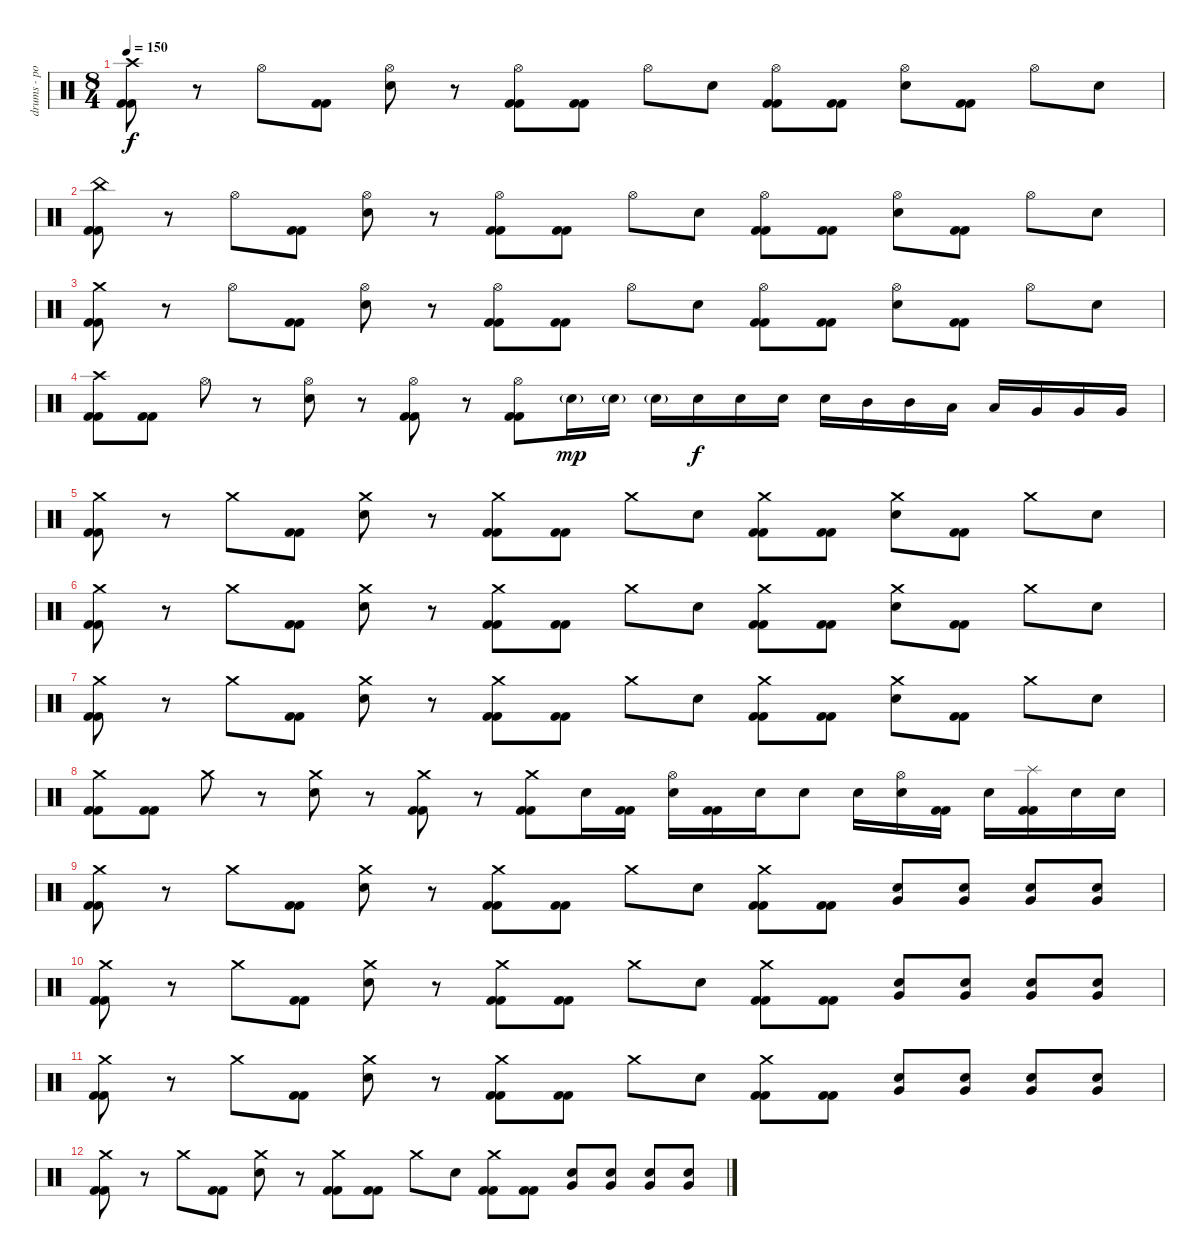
\track ("drums - portnoy" "drums - po") {instrument percussion}
\staff {score}
\articulation defaults
\ts (8 4)
\tempo 150
\clef neutral
\ks c
("Crash high (hit)" "Kick (hit) 2" "Kick (hit) 2").8{dy f} r.8 "Hi-Hat (open)".8 ("Kick (hit) 2" "Kick (hit) 2").8 ("Hi-Hat (open)" "Electric Snare (hit)").8 r.8 ("Hi-Hat (open)" "Kick (hit) 2" "Kick (hit) 2").8 ("Kick (hit) 2" "Kick (hit) 2").8 "Hi-Hat (open)".8 "Electric Snare (hit)".8 ("Hi-Hat (open)" "Kick (hit) 2" "Kick (hit) 2").8 ("Kick (hit) 2" "Kick (hit) 2").8 ("Hi-Hat (open)" "Electric Snare (hit)").8 ("Kick (hit) 2" "Kick (hit) 2").8 "Hi-Hat (open)".8 "Electric Snare (hit)".8 |
("China (hit)" "Kick (hit) 2" "Kick (hit) 2").8 r.8 "Hi-Hat (open)".8 ("Kick (hit) 2" "Kick (hit) 2").8 ("Hi-Hat (open)" "Electric Snare (hit)").8 r.8 ("Hi-Hat (open)" "Kick (hit) 2" "Kick (hit) 2").8 ("Kick (hit) 2" "Kick (hit) 2").8 "Hi-Hat (open)".8 "Electric Snare (hit)".8 ("Hi-Hat (open)" "Kick (hit) 2" "Kick (hit) 2").8 ("Kick (hit) 2" "Kick (hit) 2").8 ("Hi-Hat (open)" "Electric Snare (hit)").8 ("Kick (hit) 2" "Kick (hit) 2").8 "Hi-Hat (open)".8 "Electric Snare (hit)".8 |
("Crash medium (hit)" "Kick (hit) 2" "Kick (hit) 2").8 r.8 "Hi-Hat (open)".8 ("Kick (hit) 2" "Kick (hit) 2").8 ("Hi-Hat (open)" "Electric Snare (hit)").8 r.8 ("Hi-Hat (open)" "Kick (hit) 2" "Kick (hit) 2").8 ("Kick (hit) 2" "Kick (hit) 2").8 "Hi-Hat (open)".8 "Electric Snare (hit)".8 ("Hi-Hat (open)" "Kick (hit) 2" "Kick (hit) 2").8 ("Kick (hit) 2" "Kick (hit) 2").8 ("Hi-Hat (open)" "Electric Snare (hit)").8 ("Kick (hit) 2" "Kick (hit) 2").8 "Hi-Hat (open)".8 "Electric Snare (hit)".8 |
("Crash high (hit)" "Kick (hit) 2" "Kick (hit) 2").8 ("Kick (hit) 2" "Kick (hit) 2").8 "Hi-Hat (open)".8 r.8 ("Hi-Hat (open)" "Electric Snare (hit)").8 r.8 ("Hi-Hat (open)" "Kick (hit) 2" "Kick (hit) 2").8 r.8 ("Hi-Hat (open)" "Kick (hit) 2" "Kick (hit) 2").8 "Electric Snare (hit)"{g}.16{dy mp} "Electric Snare (hit)"{g}.16 "Electric Snare (hit)"{g}.16 "Electric Snare (hit)".16{dy f} "Electric Snare (hit)".16 "Electric Snare (hit)".16 "Electric Snare (hit)".16 "Mid Tom (hit)".16 "Mid Tom (hit)".16 "Low Tom (hit)".16 "Low Tom (hit)".16 "Very Low Tom (hit)".16 "Very Low Tom (hit)".16 "Very Low Tom (hit)".16 |
("Crash medium (hit)" "Kick (hit) 2" "Kick (hit) 2").8 r.8 "Crash medium (hit)".8 ("Kick (hit) 2" "Kick (hit) 2").8 ("Crash medium (hit)" "Electric Snare (hit)").8 r.8 ("Crash medium (hit)" "Kick (hit) 2" "Kick (hit) 2").8 ("Kick (hit) 2" "Kick (hit) 2").8 "Crash medium (hit)".8 "Electric Snare (hit)".8 ("Crash medium (hit)" "Kick (hit) 2" "Kick (hit) 2").8 ("Kick (hit) 2" "Kick (hit) 2").8 ("Crash medium (hit)" "Electric Snare (hit)").8 ("Kick (hit) 2" "Kick (hit) 2").8 "Crash medium (hit)".8 "Electric Snare (hit)".8 |
("Crash medium (hit)" "Kick (hit) 2" "Kick (hit) 2").8 r.8 "Crash medium (hit)".8 ("Kick (hit) 2" "Kick (hit) 2").8 ("Crash medium (hit)" "Electric Snare (hit)").8 r.8 ("Crash medium (hit)" "Kick (hit) 2" "Kick (hit) 2").8 ("Kick (hit) 2" "Kick (hit) 2").8 "Crash medium (hit)".8 "Electric Snare (hit)".8 ("Crash medium (hit)" "Kick (hit) 2" "Kick (hit) 2").8 ("Kick (hit) 2" "Kick (hit) 2").8 ("Crash medium (hit)" "Electric Snare (hit)").8 ("Kick (hit) 2" "Kick (hit) 2").8 "Crash medium (hit)".8 "Electric Snare (hit)".8 |
("Crash medium (hit)" "Kick (hit) 2" "Kick (hit) 2").8 r.8 "Crash medium (hit)".8 ("Kick (hit) 2" "Kick (hit) 2").8 ("Crash medium (hit)" "Electric Snare (hit)").8 r.8 ("Crash medium (hit)" "Kick (hit) 2" "Kick (hit) 2").8 ("Kick (hit) 2" "Kick (hit) 2").8 "Crash medium (hit)".8 "Electric Snare (hit)".8 ("Crash medium (hit)" "Kick (hit) 2" "Kick (hit) 2").8 ("Kick (hit) 2" "Kick (hit) 2").8 ("Crash medium (hit)" "Electric Snare (hit)").8 ("Kick (hit) 2" "Kick (hit) 2").8 "Crash medium (hit)".8 "Electric Snare (hit)".8 |
("Crash medium (hit)" "Kick (hit) 2" "Kick (hit) 2").8 ("Kick (hit) 2" "Kick (hit) 2").8 "Crash medium (hit)".8 r.8 ("Crash medium (hit)" "Electric Snare (hit)").8 r.8 ("Crash medium (hit)" "Kick (hit) 2" "Kick (hit) 2").8 r.8 ("Crash medium (hit)" "Kick (hit) 2" "Kick (hit) 2").8 "Electric Snare (hit)".16 ("Kick (hit) 2" "Kick (hit) 2").16 ("Hi-Hat (open)" "Electric Snare (hit)").16 ("Kick (hit) 2" "Kick (hit) 2").16 "Electric Snare (hit)".16 "Electric Snare (hit)".8 "Electric Snare (hit)".16 ("Hi-Hat (open)" "Electric Snare (hit)").16 ("Kick (hit) 2" "Kick (hit) 2").16 "Electric Snare (hit)".16 ("Splash (hit)" "Kick (hit) 2" "Kick (hit) 2").16 "Electric Snare (hit)".16 "Electric Snare (hit)".16 |
("Crash medium (hit)" "Kick (hit) 2" "Kick (hit) 2").8 r.8 "Crash medium (hit)".8 ("Kick (hit) 2" "Kick (hit) 2").8 ("Crash medium (hit)" "Electric Snare (hit)").8 r.8 ("Crash medium (hit)" "Kick (hit) 2" "Kick (hit) 2").8 ("Kick (hit) 2" "Kick (hit) 2").8 "Crash medium (hit)".8 "Electric Snare (hit)".8 ("Crash medium (hit)" "Kick (hit) 2" "Kick (hit) 2").8 ("Kick (hit) 2" "Kick (hit) 2").8 ("Electric Snare (hit)" "Very Low Tom (hit)").8 ("Electric Snare (hit)" "Very Low Tom (hit)").8 ("Electric Snare (hit)" "Very Low Tom (hit)").8 ("Electric Snare (hit)" "Very Low Tom (hit)").8 |
("Crash medium (hit)" "Kick (hit) 2" "Kick (hit) 2").8 r.8 "Crash medium (hit)".8 ("Kick (hit) 2" "Kick (hit) 2").8 ("Crash medium (hit)" "Electric Snare (hit)").8 r.8 ("Crash medium (hit)" "Kick (hit) 2" "Kick (hit) 2").8 ("Kick (hit) 2" "Kick (hit) 2").8 "Crash medium (hit)".8 "Electric Snare (hit)".8 ("Crash medium (hit)" "Kick (hit) 2" "Kick (hit) 2").8 ("Kick (hit) 2" "Kick (hit) 2").8 ("Electric Snare (hit)" "Very Low Tom (hit)").8 ("Electric Snare (hit)" "Very Low Tom (hit)").8 ("Electric Snare (hit)" "Very Low Tom (hit)").8 ("Electric Snare (hit)" "Very Low Tom (hit)").8 |
("Crash medium (hit)" "Kick (hit) 2" "Kick (hit) 2").8 r.8 "Crash medium (hit)".8 ("Kick (hit) 2" "Kick (hit) 2").8 ("Crash medium (hit)" "Electric Snare (hit)").8 r.8 ("Crash medium (hit)" "Kick (hit) 2" "Kick (hit) 2").8 ("Kick (hit) 2" "Kick (hit) 2").8 "Crash medium (hit)".8 "Electric Snare (hit)".8 ("Crash medium (hit)" "Kick (hit) 2" "Kick (hit) 2").8 ("Kick (hit) 2" "Kick (hit) 2").8 ("Electric Snare (hit)" "Very Low Tom (hit)").8 ("Electric Snare (hit)" "Very Low Tom (hit)").8 ("Electric Snare (hit)" "Very Low Tom (hit)").8 ("Electric Snare (hit)" "Very Low Tom (hit)").8 |
("Crash medium (hit)" "Kick (hit) 2" "Kick (hit) 2").8 r.8 "Crash medium (hit)".8 ("Kick (hit) 2" "Kick (hit) 2").8 ("Crash medium (hit)" "Electric Snare (hit)").8 r.8 ("Crash medium (hit)" "Kick (hit) 2" "Kick (hit) 2").8 ("Kick (hit) 2" "Kick (hit) 2").8 "Crash medium (hit)".8 "Electric Snare (hit)".8 ("Crash medium (hit)" "Kick (hit) 2" "Kick (hit) 2").8 ("Kick (hit) 2" "Kick (hit) 2").8 ("Electric Snare (hit)" "Very Low Tom (hit)").8 ("Electric Snare (hit)" "Very Low Tom (hit)").8 ("Electric Snare (hit)" "Very Low Tom (hit)").8 ("Electric Snare (hit)" "Very Low Tom (hit)").8
